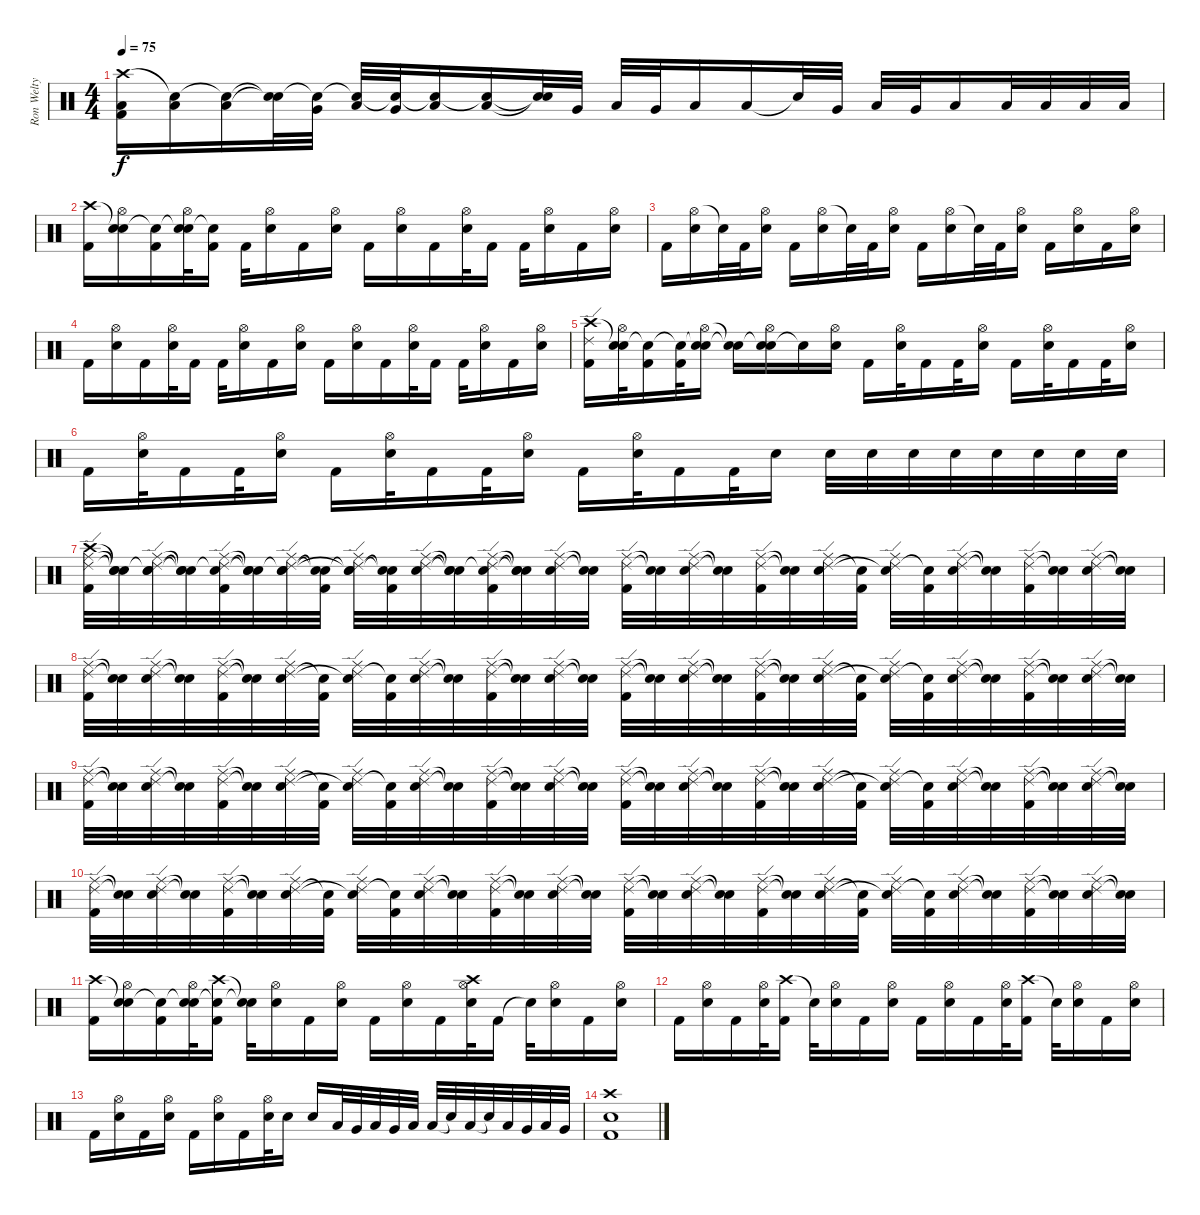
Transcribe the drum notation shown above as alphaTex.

\track ("Ron Welty" "Ron Welty") {instrument percussion}
\staff {score}
\articulation defaults
\ts (4 4)
\tempo 75
\clef neutral
\ks c
("Crash high (hit)" "Low Tom (hit)" "Kick (hit) 2").16{dy f} ("Snare (hit)"{t} "Low Tom (hit)").16 ("Snare (hit)"{t} "Low Tom (hit)").16 ("Snare (hit)"{t} "Snare (hit)"{t}).32 ("Snare (hit)"{t} "Very Low Tom (hit)").32 ("Snare (hit)"{t} "Low Tom (hit)").32 ("Snare (hit)"{t} "Very Low Tom (hit)").32 ("Snare (hit)"{t} "Low Tom (hit)").16 ("Snare (hit)"{t} "Low Tom (hit)").16 ("Snare (hit)"{t} "Snare (hit)"{t}).32 "Very Low Tom (hit)".32 "Low Tom (hit)".32 "Very Low Tom (hit)".32 "Low Tom (hit)".16 "Low Tom (hit)".16 "Snare (hit)"{t}.32 "Very Low Tom (hit)".32 "Low Tom (hit)".32 "Very Low Tom (hit)".32 "Low Tom (hit)".16 "Low Tom (hit)".32 "Low Tom (hit)".32 "Low Tom (hit)".32 "Low Tom (hit)".32 |
("Crash high (hit)" "Kick (hit) 2").16 ("Snare (hit)"{t} "Hi-Hat (open)" "Electric Snare (hit)").16 ("Snare (hit)"{t} "Kick (hit) 2").16 ("Snare (hit)"{t} "Hi-Hat (open)" "Electric Snare (hit)").32 ("Snare (hit)"{t} "Kick (hit) 2").16 "Kick (hit) 2".32 ("Hi-Hat (open)" "Electric Snare (hit)").16 "Kick (hit) 2".16 ("Hi-Hat (open)" "Electric Snare (hit)").16 "Kick (hit) 2".16 ("Hi-Hat (open)" "Electric Snare (hit)").16 "Kick (hit) 2".16 ("Hi-Hat (open)" "Electric Snare (hit)").32 "Kick (hit) 2".16 "Kick (hit) 2".32 ("Hi-Hat (open)" "Electric Snare (hit)").16 "Kick (hit) 2".16 ("Hi-Hat (open)" "Electric Snare (hit)").16 |
"Kick (hit) 2".16 ("Hi-Hat (open)" "Electric Snare (hit)").16 "Snare (hit)"{t}.32 "Kick (hit) 2".32 ("Hi-Hat (open)" "Electric Snare (hit)").16 "Kick (hit) 2".16 ("Hi-Hat (open)" "Electric Snare (hit)").16 "Snare (hit)"{t}.32 "Kick (hit) 2".32 ("Hi-Hat (open)" "Electric Snare (hit)").16 "Kick (hit) 2".16 ("Hi-Hat (open)" "Electric Snare (hit)").16 "Snare (hit)"{t}.32 "Kick (hit) 2".32 ("Hi-Hat (open)" "Electric Snare (hit)").16 "Kick (hit) 2".16 ("Hi-Hat (open)" "Electric Snare (hit)").16 "Kick (hit) 2".16 ("Hi-Hat (open)" "Electric Snare (hit)").16 |
"Kick (hit) 2".16 ("Hi-Hat (open)" "Electric Snare (hit)").16 "Kick (hit) 2".16 ("Hi-Hat (open)" "Electric Snare (hit)").32 "Kick (hit) 2".16 "Kick (hit) 2".32 ("Hi-Hat (open)" "Electric Snare (hit)").16 "Kick (hit) 2".16 ("Hi-Hat (open)" "Electric Snare (hit)").16 "Kick (hit) 2".16 ("Hi-Hat (open)" "Electric Snare (hit)").16 "Kick (hit) 2".16 ("Hi-Hat (open)" "Electric Snare (hit)").32 "Kick (hit) 2".16 "Kick (hit) 2".32 ("Hi-Hat (open)" "Electric Snare (hit)").16 "Kick (hit) 2".16 ("Hi-Hat (open)" "Electric Snare (hit)").16 |
("Crash high (hit)" "Ride (edge) 2" "Kick (hit) 2").16 ("Snare (hit)"{t} "Hi-Hat (open)" "Electric Snare (hit)").32 ("Snare (hit)"{t} "Kick (hit) 2").16 ("Snare (hit)"{t} "Kick (hit) 2").32 ("Snare (hit)"{t} "Hi-Hat (open)" "Electric Snare (hit)").16 ("Snare (hit)"{t} "Snare (hit)"{t}).16 ("Snare (hit)"{t} "Hi-Hat (open)" "Electric Snare (hit)").16 "Snare (hit)"{t}.16 ("Hi-Hat (open)" "Electric Snare (hit)").16 "Kick (hit) 2".16 ("Hi-Hat (open)" "Electric Snare (hit)").32 "Kick (hit) 2".16 "Kick (hit) 2".32 ("Hi-Hat (open)" "Electric Snare (hit)").16 "Kick (hit) 2".16 ("Hi-Hat (open)" "Electric Snare (hit)").32 "Kick (hit) 2".16 "Kick (hit) 2".32 ("Hi-Hat (open)" "Electric Snare (hit)").16 |
"Kick (hit) 2".16 ("Hi-Hat (open)" "Electric Snare (hit)").32 "Kick (hit) 2".16 "Kick (hit) 2".32 ("Hi-Hat (open)" "Electric Snare (hit)").16 "Kick (hit) 2".16 ("Hi-Hat (open)" "Electric Snare (hit)").32 "Kick (hit) 2".16 "Kick (hit) 2".32 ("Hi-Hat (open)" "Electric Snare (hit)").16 "Kick (hit) 2".16 ("Hi-Hat (open)" "Electric Snare (hit)").32 "Kick (hit) 2".16 "Kick (hit) 2".32 "Electric Snare (hit)".16 "Electric Snare (hit)".32 "Electric Snare (hit)".32 "Electric Snare (hit)".32 "Electric Snare (hit)".32 "Electric Snare (hit)".32 "Electric Snare (hit)".32 "Electric Snare (hit)".32 "Electric Snare (hit)".32 |
("Crash high (hit)" "Ride (edge) 2" "Ride (middle)" "Kick (hit) 2").32 ("Snare (hit)"{t} "Snare (hit)"{t} "Snare (hit)"{t}).32 ("Snare (hit)"{t} "Ride (edge) 2" "Ride (middle)" "Electric Snare (hit)").32 ("Snare (hit)"{t} "Snare (hit)"{t} "Snare (hit)"{t}).32 ("Snare (hit)"{t} "Ride (edge) 2" "Ride (middle)" "Kick (hit) 2").32 ("Snare (hit)"{t} "Snare (hit)"{t} "Snare (hit)"{t}).32 ("Snare (hit)"{t} "Ride (edge) 2" "Ride (middle)" "Electric Snare (hit)").32 ("Snare (hit)"{t} "Snare (hit)"{t} "Kick (hit) 2").32 ("Snare (hit)"{t} "Ride (edge) 2" "Ride (middle)" "Snare (hit)"{t}).32 ("Snare (hit)"{t} "Snare (hit)"{t} "Kick (hit) 2").32 ("Ride (edge) 2" "Ride (middle)" "Electric Snare (hit)").32 ("Snare (hit)"{t} "Snare (hit)"{t} "Snare (hit)"{t}).32 ("Snare (hit)"{t} "Ride (edge) 2" "Ride (middle)" "Kick (hit) 2").32 ("Snare (hit)"{t} "Snare (hit)"{t} "Snare (hit)"{t}).32 ("Ride (edge) 2" "Ride (middle)" "Electric Snare (hit)").32 ("Snare (hit)"{t} "Snare (hit)"{t}).32 ("Ride (edge) 2" "Ride (middle)" "Kick (hit) 2").32 ("Snare (hit)"{t} "Snare (hit)"{t}).32 ("Ride (edge) 2" "Ride (middle)" "Electric Snare (hit)").32 ("Snare (hit)"{t} "Snare (hit)"{t}).32 ("Ride (edge) 2" "Ride (middle)" "Kick (hit) 2").32 ("Snare (hit)"{t} "Snare (hit)"{t}).32 ("Ride (edge) 2" "Ride (middle)" "Electric Snare (hit)").32 ("Snare (hit)"{t} "Kick (hit) 2").32 ("Ride (edge) 2" "Ride (middle)" "Snare (hit)"{t}).32 ("Snare (hit)"{t} "Kick (hit) 2").32 ("Ride (edge) 2" "Ride (middle)" "Electric Snare (hit)").32 ("Snare (hit)"{t} "Snare (hit)"{t}).32 ("Ride (edge) 2" "Ride (middle)" "Kick (hit) 2").32 ("Snare (hit)"{t} "Snare (hit)"{t}).32 ("Ride (edge) 2" "Ride (middle)" "Electric Snare (hit)").32 ("Snare (hit)"{t} "Snare (hit)"{t}).32 |
("Ride (edge) 2" "Ride (middle)" "Kick (hit) 2").32 ("Snare (hit)"{t} "Snare (hit)"{t}).32 ("Ride (edge) 2" "Ride (middle)" "Electric Snare (hit)").32 ("Snare (hit)"{t} "Snare (hit)"{t}).32 ("Ride (edge) 2" "Ride (middle)" "Kick (hit) 2").32 ("Snare (hit)"{t} "Snare (hit)"{t}).32 ("Ride (edge) 2" "Ride (middle)" "Electric Snare (hit)").32 ("Snare (hit)"{t} "Kick (hit) 2").32 ("Ride (edge) 2" "Ride (middle)" "Snare (hit)"{t}).32 ("Snare (hit)"{t} "Kick (hit) 2").32 ("Ride (edge) 2" "Ride (middle)" "Electric Snare (hit)").32 ("Snare (hit)"{t} "Snare (hit)"{t}).32 ("Ride (edge) 2" "Ride (middle)" "Kick (hit) 2").32 ("Snare (hit)"{t} "Snare (hit)"{t}).32 ("Ride (edge) 2" "Ride (middle)" "Electric Snare (hit)").32 ("Snare (hit)"{t} "Snare (hit)"{t}).32 ("Ride (edge) 2" "Ride (middle)" "Kick (hit) 2").32 ("Snare (hit)"{t} "Snare (hit)"{t}).32 ("Ride (edge) 2" "Ride (middle)" "Electric Snare (hit)").32 ("Snare (hit)"{t} "Snare (hit)"{t}).32 ("Ride (edge) 2" "Ride (middle)" "Kick (hit) 2").32 ("Snare (hit)"{t} "Snare (hit)"{t}).32 ("Ride (edge) 2" "Ride (middle)" "Electric Snare (hit)").32 ("Snare (hit)"{t} "Kick (hit) 2").32 ("Ride (edge) 2" "Ride (middle)" "Snare (hit)"{t}).32 ("Snare (hit)"{t} "Kick (hit) 2").32 ("Ride (edge) 2" "Ride (middle)" "Electric Snare (hit)").32 ("Snare (hit)"{t} "Snare (hit)"{t}).32 ("Ride (edge) 2" "Ride (middle)" "Kick (hit) 2").32 ("Snare (hit)"{t} "Snare (hit)"{t}).32 ("Ride (edge) 2" "Ride (middle)" "Electric Snare (hit)").32 ("Snare (hit)"{t} "Snare (hit)"{t}).32 |
("Ride (edge) 2" "Ride (middle)" "Kick (hit) 2").32 ("Snare (hit)"{t} "Snare (hit)"{t}).32 ("Ride (edge) 2" "Ride (middle)" "Electric Snare (hit)").32 ("Snare (hit)"{t} "Snare (hit)"{t}).32 ("Ride (edge) 2" "Ride (middle)" "Kick (hit) 2").32 ("Snare (hit)"{t} "Snare (hit)"{t}).32 ("Ride (edge) 2" "Ride (middle)" "Electric Snare (hit)").32 ("Snare (hit)"{t} "Kick (hit) 2").32 ("Ride (edge) 2" "Ride (middle)" "Snare (hit)"{t}).32 ("Snare (hit)"{t} "Kick (hit) 2").32 ("Ride (edge) 2" "Ride (middle)" "Electric Snare (hit)").32 ("Snare (hit)"{t} "Snare (hit)"{t}).32 ("Ride (edge) 2" "Ride (middle)" "Kick (hit) 2").32 ("Snare (hit)"{t} "Snare (hit)"{t}).32 ("Ride (edge) 2" "Ride (middle)" "Electric Snare (hit)").32 ("Snare (hit)"{t} "Snare (hit)"{t}).32 ("Ride (edge) 2" "Ride (middle)" "Kick (hit) 2").32 ("Snare (hit)"{t} "Snare (hit)"{t}).32 ("Ride (edge) 2" "Ride (middle)" "Electric Snare (hit)").32 ("Snare (hit)"{t} "Snare (hit)"{t}).32 ("Ride (edge) 2" "Ride (middle)" "Kick (hit) 2").32 ("Snare (hit)"{t} "Snare (hit)"{t}).32 ("Ride (edge) 2" "Ride (middle)" "Electric Snare (hit)").32 ("Snare (hit)"{t} "Kick (hit) 2").32 ("Ride (edge) 2" "Ride (middle)" "Snare (hit)"{t}).32 ("Snare (hit)"{t} "Kick (hit) 2").32 ("Ride (edge) 2" "Ride (middle)" "Electric Snare (hit)").32 ("Snare (hit)"{t} "Snare (hit)"{t}).32 ("Ride (edge) 2" "Ride (middle)" "Kick (hit) 2").32 ("Snare (hit)"{t} "Snare (hit)"{t}).32 ("Ride (edge) 2" "Ride (middle)" "Electric Snare (hit)").32 ("Snare (hit)"{t} "Snare (hit)"{t}).32 |
("Ride (edge) 2" "Ride (middle)" "Kick (hit) 2").32 ("Snare (hit)"{t} "Snare (hit)"{t}).32 ("Ride (edge) 2" "Ride (middle)" "Electric Snare (hit)").32 ("Snare (hit)"{t} "Snare (hit)"{t}).32 ("Ride (edge) 2" "Ride (middle)" "Kick (hit) 2").32 ("Snare (hit)"{t} "Snare (hit)"{t}).32 ("Ride (edge) 2" "Ride (middle)" "Electric Snare (hit)").32 ("Snare (hit)"{t} "Kick (hit) 2").32 ("Ride (edge) 2" "Ride (middle)" "Snare (hit)"{t}).32 ("Snare (hit)"{t} "Kick (hit) 2").32 ("Ride (edge) 2" "Ride (middle)" "Electric Snare (hit)").32 ("Snare (hit)"{t} "Snare (hit)"{t}).32 ("Ride (edge) 2" "Ride (middle)" "Kick (hit) 2").32 ("Snare (hit)"{t} "Snare (hit)"{t}).32 ("Ride (edge) 2" "Ride (middle)" "Electric Snare (hit)").32 ("Snare (hit)"{t} "Snare (hit)"{t}).32 ("Ride (edge) 2" "Ride (middle)" "Kick (hit) 2").32 ("Snare (hit)"{t} "Snare (hit)"{t}).32 ("Ride (edge) 2" "Ride (middle)" "Electric Snare (hit)").32 ("Snare (hit)"{t} "Snare (hit)"{t}).32 ("Ride (edge) 2" "Ride (middle)" "Kick (hit) 2").32 ("Snare (hit)"{t} "Snare (hit)"{t}).32 ("Ride (edge) 2" "Ride (middle)" "Electric Snare (hit)").32 ("Snare (hit)"{t} "Kick (hit) 2").32 ("Ride (edge) 2" "Ride (middle)" "Snare (hit)"{t}).32 ("Snare (hit)"{t} "Kick (hit) 2").32 ("Ride (edge) 2" "Ride (middle)" "Electric Snare (hit)").32 ("Snare (hit)"{t} "Snare (hit)"{t}).32 ("Ride (edge) 2" "Ride (middle)" "Kick (hit) 2").32 ("Snare (hit)"{t} "Snare (hit)"{t}).32 ("Ride (edge) 2" "Ride (middle)" "Electric Snare (hit)").32 ("Snare (hit)"{t} "Snare (hit)"{t}).32 |
("Crash high (hit)" "Kick (hit) 2").16 ("Snare (hit)"{t} "Hi-Hat (open)" "Electric Snare (hit)").16 ("Snare (hit)"{t} "Kick (hit) 2").16 ("Snare (hit)"{t} "Hi-Hat (open)" "Electric Snare (hit)").32 ("Snare (hit)"{t} "Crash high (hit)" "Kick (hit) 2").16 ("Snare (hit)"{t} "Snare (hit)"{t}).32 ("Hi-Hat (open)" "Electric Snare (hit)").16 "Kick (hit) 2".16 ("Hi-Hat (open)" "Electric Snare (hit)").16 "Kick (hit) 2".16 ("Hi-Hat (open)" "Electric Snare (hit)").16 "Kick (hit) 2".16 ("Hi-Hat (open)" "Crash high (hit)" "Electric Snare (hit)").32 "Kick (hit) 2".16 "Snare (hit)"{t}.32 ("Hi-Hat (open)" "Electric Snare (hit)").16 "Kick (hit) 2".16 ("Hi-Hat (open)" "Electric Snare (hit)").16 |
"Kick (hit) 2".16 ("Hi-Hat (open)" "Electric Snare (hit)").16 "Kick (hit) 2".16 ("Hi-Hat (open)" "Electric Snare (hit)").32 ("Crash high (hit)" "Kick (hit) 2").16 "Snare (hit)"{t}.32 ("Hi-Hat (open)" "Electric Snare (hit)").16 "Kick (hit) 2".16 ("Hi-Hat (open)" "Electric Snare (hit)").16 "Kick (hit) 2".16 ("Hi-Hat (open)" "Electric Snare (hit)").16 "Kick (hit) 2".16 ("Hi-Hat (open)" "Electric Snare (hit)").32 ("Crash high (hit)" "Kick (hit) 2").16 "Snare (hit)"{t}.32 ("Hi-Hat (open)" "Electric Snare (hit)").16 "Kick (hit) 2".16 ("Hi-Hat (open)" "Electric Snare (hit)").16 |
"Kick (hit) 2".16 ("Hi-Hat (open)" "Electric Snare (hit)").16 "Kick (hit) 2".16 ("Hi-Hat (open)" "Electric Snare (hit)").16 "Kick (hit) 2".16 ("Hi-Hat (open)" "Electric Snare (hit)").16 "Kick (hit) 2".16 ("Hi-Hat (open)" "Electric Snare (hit)").32 "Electric Snare (hit)".16 "Electric Snare (hit)".16 "Low Tom (hit)".32 "Very Low Tom (hit)".32 "Low Tom (hit)".32 "Very Low Tom (hit)".32 "Low Tom (hit)".32 "Low Tom (hit)".32 "Snare (hit)"{t}.32 "Low Tom (hit)".32 "Snare (hit)"{t}.32 "Low Tom (hit)".32 "Very Low Tom (hit)".32 "Low Floor Tom (hit)".32 "Very Low Tom (hit)".32 |
("Crash high (hit)" "Electric Snare (hit)" "Kick (hit) 2").1
